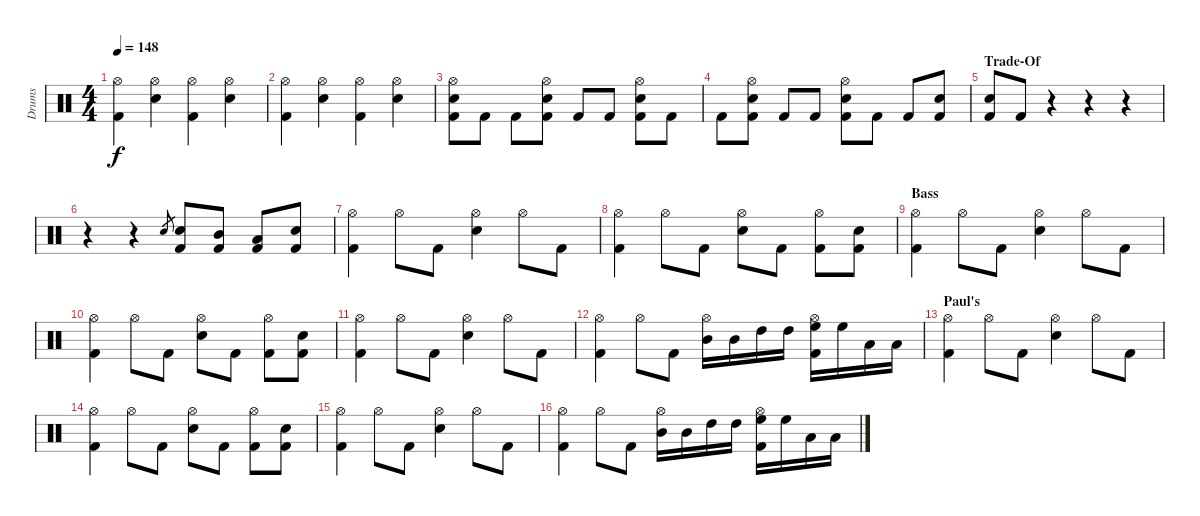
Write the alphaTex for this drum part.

\track ("Drums" "Drums") {instrument percussion}
\staff {score}
\articulation defaults
\ts (4 4)
\tempo 148
\clef neutral
\ks c
("Hi-Hat (open)" "Kick (hit) 2").4{dy f} ("Hi-Hat (open)" "Snare (hit) 2").4 ("Hi-Hat (open)" "Kick (hit) 2").4 ("Hi-Hat (open)" "Snare (hit) 2").4 |
("Hi-Hat (open)" "Kick (hit) 2").4 ("Hi-Hat (open)" "Snare (hit) 2").4 ("Hi-Hat (open)" "Kick (hit) 2").4 ("Hi-Hat (open)" "Snare (hit) 2").4 |
("Hi-Hat (open)" "Snare (hit) 2" "Kick (hit) 2").8 "Kick (hit) 2".8 "Kick (hit) 2".8 ("Hi-Hat (open)" "Snare (hit) 2" "Kick (hit) 2").8 "Kick (hit) 2".8 "Kick (hit) 2".8 ("Hi-Hat (open)" "Snare (hit) 2" "Kick (hit) 2").8 "Kick (hit) 2".8 |
"Kick (hit) 2".8 ("Hi-Hat (open)" "Snare (hit) 2" "Kick (hit) 2").8 "Kick (hit) 2".8 "Kick (hit) 2".8 ("Hi-Hat (open)" "Snare (hit) 2" "Kick (hit) 2").8 "Kick (hit) 2".8 "Kick (hit) 2".8 ("Snare (hit) 2" "Kick (hit) 2").8 |
\section ("" "Trade-Of ")
("Snare (hit) 2" "Kick (hit) 2").8 "Kick (hit) 2".8 r.4 r.4 r.4 |
r.4 r.4 "Snare (hit) 2".8{gr} ("Snare (hit) 2" "Kick (hit) 2").8 ("Mid Tom (hit)" "Kick (hit) 2").8 ("Low Tom (hit)" "Kick (hit) 2").8 ("Snare (hit) 2" "Kick (hit) 2").8 |
("Hi-Hat (open)" "Kick (hit) 2").4 "Hi-Hat (open)".8 "Kick (hit) 2".8 ("Hi-Hat (open)" "Snare (hit) 2").4 "Hi-Hat (open)".8 "Kick (hit) 2".8 |
("Hi-Hat (open)" "Kick (hit) 2").4 "Hi-Hat (open)".8 "Kick (hit) 2".8 ("Hi-Hat (open)" "Snare (hit) 2").8 "Kick (hit) 2".8 ("Hi-Hat (open)" "Kick (hit) 2").8 ("Snare (hit) 2" "Kick (hit) 2").8 |
\section ("" "Bass")
("Hi-Hat (open)" "Kick (hit) 2").4 "Hi-Hat (open)".8 "Kick (hit) 2".8 ("Hi-Hat (open)" "Snare (hit) 2").4 "Hi-Hat (open)".8 "Kick (hit) 2".8 |
("Hi-Hat (open)" "Kick (hit) 2").4 "Hi-Hat (open)".8 "Kick (hit) 2".8 ("Hi-Hat (open)" "Snare (hit) 2").8 "Kick (hit) 2".8 ("Hi-Hat (open)" "Kick (hit) 2").8 ("Snare (hit) 2" "Kick (hit) 2").8 |
("Hi-Hat (open)" "Kick (hit) 2").4 "Hi-Hat (open)".8 "Kick (hit) 2".8 ("Hi-Hat (open)" "Snare (hit) 2").4 "Hi-Hat (open)".8 "Kick (hit) 2".8 |
("Hi-Hat (open)" "Kick (hit) 2").4 "Hi-Hat (open)".8 "Kick (hit) 2".8 ("Hi-Hat (open)" "Mid Tom (hit)").16 "Mid Tom (hit)".16 "High Tom (hit)".16 "High Tom (hit)".16 ("Hi-Hat (open)" "High Floor Tom (hit)" "Kick (hit) 2").16 "High Floor Tom (hit)".16 "Low Tom (hit)".16 "Low Tom (hit)".16 |
\section ("" "Paul's ")
("Hi-Hat (open)" "Kick (hit) 2").4 "Hi-Hat (open)".8 "Kick (hit) 2".8 ("Hi-Hat (open)" "Snare (hit) 2").4 "Hi-Hat (open)".8 "Kick (hit) 2".8 |
("Hi-Hat (open)" "Kick (hit) 2").4 "Hi-Hat (open)".8 "Kick (hit) 2".8 ("Hi-Hat (open)" "Snare (hit) 2").8 "Kick (hit) 2".8 ("Hi-Hat (open)" "Kick (hit) 2").8 ("Snare (hit) 2" "Kick (hit) 2").8 |
("Hi-Hat (open)" "Kick (hit) 2").4 "Hi-Hat (open)".8 "Kick (hit) 2".8 ("Hi-Hat (open)" "Snare (hit) 2").4 "Hi-Hat (open)".8 "Kick (hit) 2".8 |
("Hi-Hat (open)" "Kick (hit) 2").4 "Hi-Hat (open)".8 "Kick (hit) 2".8 ("Hi-Hat (open)" "Mid Tom (hit)").16 "Mid Tom (hit)".16 "High Tom (hit)".16 "High Tom (hit)".16 ("Hi-Hat (open)" "High Floor Tom (hit)" "Kick (hit) 2").16 "High Floor Tom (hit)".16 "Low Tom (hit)".16 "Low Tom (hit)".16
